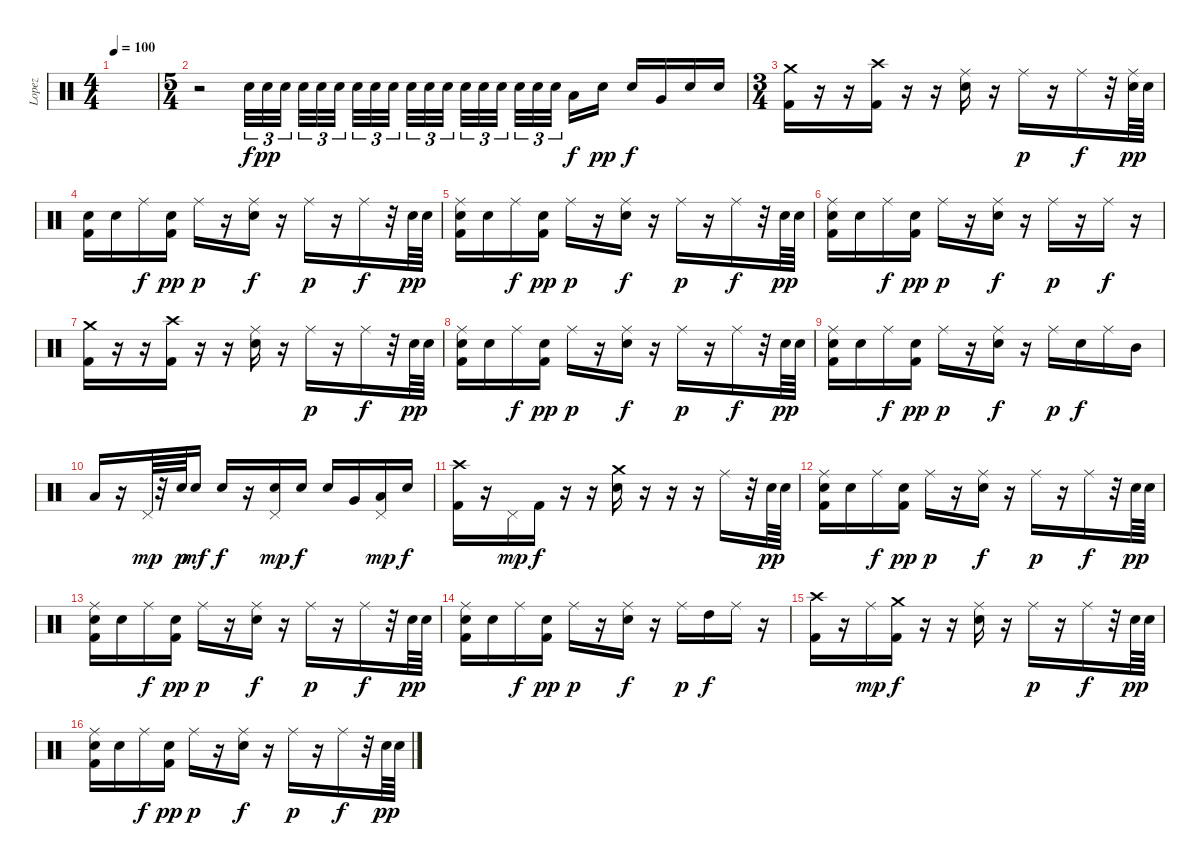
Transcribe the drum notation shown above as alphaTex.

\track ("Lopez" "Lopez") {instrument percussion}
\staff {score}
\articulation defaults
\ts (4 4)
\tempo 100
\clef neutral
\ks c
|
\ts (5 4)
r.2 "Snare (hit) 2".32{tu (3 2)} "Snare (hit) 2".32{tu (3 2) dy pp} "Snare (hit) 2".32{tu (3 2) beam splitsecondary} "Snare (hit) 2".32{tu (3 2)} "Snare (hit) 2".32{tu (3 2)} "Snare (hit) 2".32{tu (3 2) beam splitsecondary} "Snare (hit) 2".32{tu (3 2)} "Snare (hit) 2".32{tu (3 2)} "Snare (hit) 2".32{tu (3 2) beam splitsecondary} "Snare (hit) 2".32{tu (3 2)} "Snare (hit) 2".32{tu (3 2)} "Snare (hit) 2".32{tu (3 2)} "Snare (hit) 2".32{tu (3 2)} "Snare (hit) 2".32{tu (3 2)} "Snare (hit) 2".32{tu (3 2) beam splitsecondary} "Snare (hit) 2".32{tu (3 2)} "Snare (hit) 2".32{tu (3 2)} "Snare (hit) 2".32{tu (3 2) beam splitsecondary} "Low Tom (hit)".16{dy f} "Snare (hit) 2".16{dy pp} "Snare (hit) 2".16{dy f} "Very Low Tom (hit)".16 "Snare (hit) 2".16 "Snare (hit) 2".16 |
\ts (3 4)
("Crash medium (hit)" "Kick (hit) 2").16 r.16 r.16 ("Crash high (hit)" "Kick (hit) 2").16 r.16 r.16 ("Ride (middle)" "Snare (hit) 2").16 r.16 "Ride (middle)".16{dy p} r.16 "Ride (middle)".16{dy f} r.32 ("Ride (middle)" "Snare (hit) 2").64{dy pp} "Snare (hit) 2".64 |
("Snare (hit) 2" "Kick (hit) 2").16 "Snare (hit) 2".16 "Ride (middle)".16{dy f} ("Snare (hit) 2" "Kick (hit) 2").16{dy pp} "Ride (middle)".16{dy p} r.16 ("Ride (middle)" "Snare (hit) 2").16{dy f} r.16 "Ride (middle)".16{dy p} r.16 "Ride (middle)".16{dy f} r.32 "Snare (hit) 2".64{dy pp} "Snare (hit) 2".64 |
("Ride (middle)" "Snare (hit) 2" "Kick (hit) 2").16 "Snare (hit) 2".16 "Ride (middle)".16{dy f} ("Snare (hit) 2" "Kick (hit) 2").16{dy pp} "Ride (middle)".16{dy p} r.16 ("Ride (middle)" "Snare (hit) 2").16{dy f} r.16 "Ride (middle)".16{dy p} r.16 "Ride (middle)".16{dy f} r.32 "Snare (hit) 2".64{dy pp} "Snare (hit) 2".64 |
("Ride (middle)" "Snare (hit) 2" "Kick (hit) 2").16 "Snare (hit) 2".16 "Ride (middle)".16{dy f} ("Snare (hit) 2" "Kick (hit) 2").16{dy pp} "Ride (middle)".16{dy p} r.16 ("Ride (middle)" "Snare (hit) 2").16{dy f} r.16 "Ride (middle)".16{dy p} r.16 "Ride (middle)".16{dy f} r.16 |
("Crash medium (hit)" "Kick (hit) 2").16 r.16 r.16 ("Crash high (hit)" "Kick (hit) 2").16 r.16 r.16 ("Ride (middle)" "Snare (hit) 2").16 r.16 "Ride (middle)".16{dy p} r.16 "Ride (middle)".16{dy f} r.32 "Snare (hit) 2".64{dy pp} "Snare (hit) 2".64 |
("Ride (middle)" "Snare (hit) 2" "Kick (hit) 2").16 "Snare (hit) 2".16 "Ride (middle)".16{dy f} ("Snare (hit) 2" "Kick (hit) 2").16{dy pp} "Ride (middle)".16{dy p} r.16 ("Ride (middle)" "Snare (hit) 2").16{dy f} r.16 "Ride (middle)".16{dy p} r.16 "Ride (middle)".16{dy f} r.32 "Snare (hit) 2".64{dy pp} "Snare (hit) 2".64 |
("Ride (middle)" "Snare (hit) 2" "Kick (hit) 2").16 "Snare (hit) 2".16 "Ride (middle)".16{dy f} ("Snare (hit) 2" "Kick (hit) 2").16{dy pp} "Ride (middle)".16{dy p} r.16 ("Ride (middle)" "Snare (hit) 2").16{dy f} r.16 "Ride (middle)".16{dy p} "Snare (hit) 2".16{dy f} "Ride (middle)".16 "Mid Tom (hit)".16 |
"Low Tom (hit)".16 r.16 "Pedal Hi-Hat (hit)".64{dy mp} r.32 "Snare (hit) 2".64{dy p} "Snare (hit) 2".16{dy mf} "Snare (hit) 2".16{dy f} r.16 ("Pedal Hi-Hat (hit)" "Snare (hit) 2").16{dy mp} "Snare (hit) 2".16{dy f} "Snare (hit) 2".16 "Very Low Tom (hit)".16 ("Pedal Hi-Hat (hit)" "Low Floor Tom (hit)").16{dy mp} "Snare (hit) 2".16{dy f} |
("Crash high (hit)" "Kick (hit) 2").16 r.16 "Pedal Hi-Hat (hit)".16{dy mp} "Kick (hit) 2".16{dy f} r.16 r.16 ("Crash medium (hit)" "Snare (hit) 2").16 r.16 r.16 r.16 "Ride (middle)".16 r.32 "Snare (hit) 2".64{dy pp} "Snare (hit) 2".64 |
("Ride (middle)" "Snare (hit) 2" "Kick (hit) 2").16 "Snare (hit) 2".16 "Ride (middle)".16{dy f} ("Snare (hit) 2" "Kick (hit) 2").16{dy pp} "Ride (middle)".16{dy p} r.16 ("Ride (middle)" "Snare (hit) 2").16{dy f} r.16 "Ride (middle)".16{dy p} r.16 "Ride (middle)".16{dy f} r.32 "Snare (hit) 2".64{dy pp} "Snare (hit) 2".64 |
("Ride (middle)" "Snare (hit) 2" "Kick (hit) 2").16 "Snare (hit) 2".16 "Ride (middle)".16{dy f} ("Snare (hit) 2" "Kick (hit) 2").16{dy pp} "Ride (middle)".16{dy p} r.16 ("Ride (middle)" "Snare (hit) 2").16{dy f} r.16 "Ride (middle)".16{dy p} r.16 "Ride (middle)".16{dy f} r.32 "Snare (hit) 2".64{dy pp} "Snare (hit) 2".64 |
("Ride (middle)" "Snare (hit) 2" "Kick (hit) 2").16 "Snare (hit) 2".16 "Ride (middle)".16{dy f} ("Snare (hit) 2" "Kick (hit) 2").16{dy pp} "Ride (middle)".16{dy p} r.16 ("Ride (middle)" "Snare (hit) 2").16{dy f} r.16 "Ride (middle)".16{dy p} "High Tom (hit)".16{dy f} "Ride (middle)".16 r.16 |
("Crash high (hit)" "Kick (hit) 2").16 r.16 "Ride (middle)".16{dy mp} ("Crash medium (hit)" "Kick (hit) 2").16{dy f} r.16 r.16 ("Ride (middle)" "Snare (hit) 2").16 r.16 "Ride (middle)".16{dy p} r.16 "Ride (middle)".16{dy f} r.32 "Snare (hit) 2".64{dy pp} "Snare (hit) 2".64 |
("Ride (middle)" "Snare (hit) 2" "Kick (hit) 2").16 "Snare (hit) 2".16 "Ride (middle)".16{dy f} ("Snare (hit) 2" "Kick (hit) 2").16{dy pp} "Ride (middle)".16{dy p} r.16 ("Ride (middle)" "Snare (hit) 2").16{dy f} r.16 "Ride (middle)".16{dy p} r.16 "Ride (middle)".16{dy f} r.32 "Snare (hit) 2".64{dy pp} "Snare (hit) 2".64
